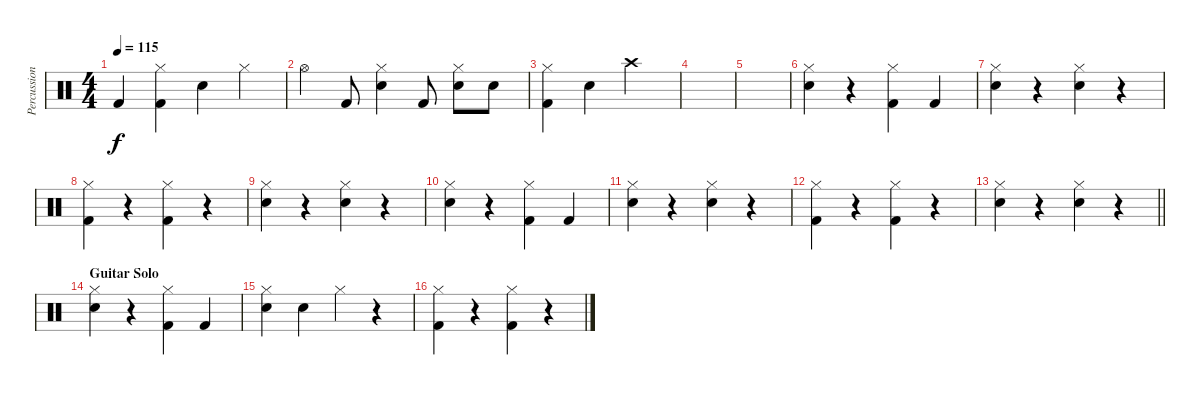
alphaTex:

\track ("Percussion" "Percussion") {instrument percussion}
\staff {score}
\articulation defaults
\ts (4 4)
\tempo 115
\clef neutral
\ks c "Kick (hit) 2".4{dy f}
("Hi-Hat (closed)" "Kick (hit) 2").4 "Snare (hit) 2".4 "Hi-Hat (closed)".4 |
"Hi-Hat (open)".4 "Kick (hit) 2".8 ("Hi-Hat (closed)" "Snare (hit) 2").4 "Kick (hit) 2".8 ("Hi-Hat (closed)" "Snare (hit) 2").8 "Snare (hit) 2".8 |
("Hi-Hat (closed)" "Kick (hit) 2").4 "Snare (hit) 2".4 "Crash high (hit)".2 |
|
|
("Hi-Hat (closed)" "Snare (hit) 2").4 r.4 ("Hi-Hat (closed)" "Kick (hit) 2").4 "Kick (hit) 2".4 |
("Hi-Hat (closed)" "Snare (hit) 2").4 r.4 ("Hi-Hat (closed)" "Snare (hit) 2").4 r.4 |
("Hi-Hat (closed)" "Kick (hit) 2").4 r.4 ("Hi-Hat (closed)" "Kick (hit) 2").4 r.4 |
("Hi-Hat (closed)" "Snare (hit) 2").4 r.4 ("Hi-Hat (closed)" "Snare (hit) 2").4 r.4 |
("Hi-Hat (closed)" "Snare (hit) 2").4 r.4 ("Hi-Hat (closed)" "Kick (hit) 2").4 "Kick (hit) 2".4 |
("Hi-Hat (closed)" "Snare (hit) 2").4 r.4 ("Hi-Hat (closed)" "Snare (hit) 2").4 r.4 |
("Hi-Hat (closed)" "Kick (hit) 2").4 r.4 ("Hi-Hat (closed)" "Kick (hit) 2").4 r.4 |
\barLineRight lightlight
("Hi-Hat (closed)" "Snare (hit) 2").4 r.4 ("Hi-Hat (closed)" "Snare (hit) 2").4 r.4 |
\section ("" "Guitar Solo")
("Hi-Hat (closed)" "Snare (hit) 2").4 r.4 ("Hi-Hat (closed)" "Kick (hit) 2").4 "Kick (hit) 2".4 |
("Hi-Hat (closed)" "Snare (hit) 2").4 "Snare (hit) 2".4 "Hi-Hat (closed)".4 r.4 |
("Hi-Hat (closed)" "Kick (hit) 2").4 r.4 ("Hi-Hat (closed)" "Kick (hit) 2").4 r.4
